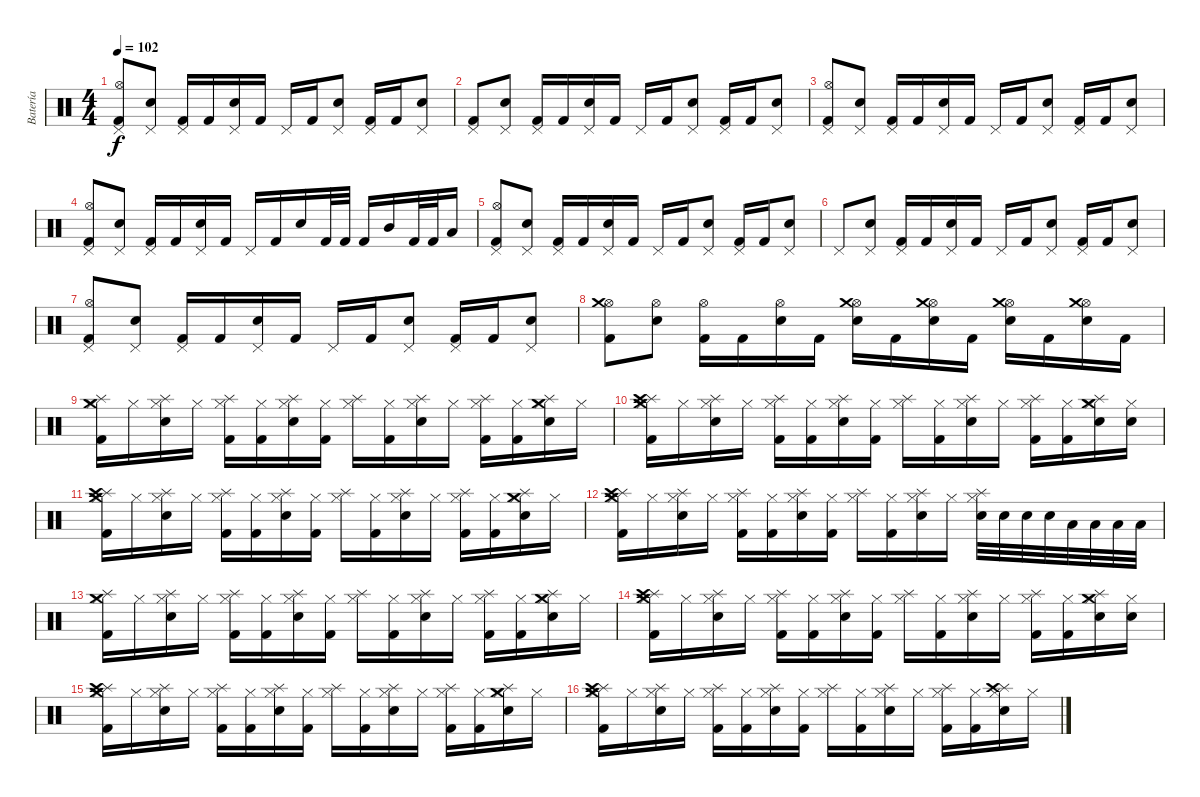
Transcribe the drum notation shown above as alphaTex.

\track ("Batería" "Batería") {instrument percussion}
\staff {score}
\articulation defaults
\ts (4 4)
\tempo 102
\clef neutral
\ks c
("Pedal Hi-Hat (hit)" "Hi-Hat (open)" "Kick (hit) 2").8{dy f} ("Pedal Hi-Hat (hit)" "Snare (hit) 2").8 ("Pedal Hi-Hat (hit)" "Kick (hit) 2").16 "Kick (hit) 2".16 ("Pedal Hi-Hat (hit)" "Snare (hit) 2").16 "Kick (hit) 2".16 "Pedal Hi-Hat (hit)".16 "Kick (hit) 2".16 ("Pedal Hi-Hat (hit)" "Snare (hit) 2").8 ("Pedal Hi-Hat (hit)" "Kick (hit) 2").16 "Kick (hit) 2".16 ("Pedal Hi-Hat (hit)" "Snare (hit) 2").8 |
("Pedal Hi-Hat (hit)" "Kick (hit) 2").8 ("Pedal Hi-Hat (hit)" "Snare (hit) 2").8 ("Pedal Hi-Hat (hit)" "Kick (hit) 2").16 "Kick (hit) 2".16 ("Pedal Hi-Hat (hit)" "Snare (hit) 2").16 "Kick (hit) 2".16 "Pedal Hi-Hat (hit)".16 "Kick (hit) 2".16 ("Pedal Hi-Hat (hit)" "Snare (hit) 2").8 ("Pedal Hi-Hat (hit)" "Kick (hit) 2").16 "Kick (hit) 2".16 ("Pedal Hi-Hat (hit)" "Snare (hit) 2").8 |
("Pedal Hi-Hat (hit)" "Hi-Hat (open)" "Kick (hit) 2").8 ("Pedal Hi-Hat (hit)" "Snare (hit) 2").8 ("Pedal Hi-Hat (hit)" "Kick (hit) 2").16 "Kick (hit) 2".16 ("Pedal Hi-Hat (hit)" "Snare (hit) 2").16 "Kick (hit) 2".16 "Pedal Hi-Hat (hit)".16 "Kick (hit) 2".16 ("Pedal Hi-Hat (hit)" "Snare (hit) 2").8 ("Pedal Hi-Hat (hit)" "Kick (hit) 2").16 "Kick (hit) 2".16 ("Pedal Hi-Hat (hit)" "Snare (hit) 2").8 |
("Pedal Hi-Hat (hit)" "Kick (hit) 2" "Hi-Hat (open)").8 ("Pedal Hi-Hat (hit)" "Snare (hit) 2").8 ("Pedal Hi-Hat (hit)" "Kick (hit) 2").16 "Kick (hit) 2".16 ("Pedal Hi-Hat (hit)" "Snare (hit) 2").16 "Kick (hit) 2".16 "Pedal Hi-Hat (hit)".16 "Kick (hit) 2".16 "Snare (hit) 2".16 "Kick (hit) 2".32 "Kick (hit) 2".32 "Kick (hit) 2".16 "Mid Tom (hit)".16 "Kick (hit) 2".32 "Kick (hit) 2".32 "Low Tom (hit)".16 |
("Pedal Hi-Hat (hit)" "Hi-Hat (open)" "Kick (hit) 2").8 ("Pedal Hi-Hat (hit)" "Snare (hit) 2").8 ("Pedal Hi-Hat (hit)" "Kick (hit) 2").16 "Kick (hit) 2".16 ("Pedal Hi-Hat (hit)" "Snare (hit) 2").16 "Kick (hit) 2".16 "Pedal Hi-Hat (hit)".16 "Kick (hit) 2".16 ("Pedal Hi-Hat (hit)" "Snare (hit) 2").8 ("Pedal Hi-Hat (hit)" "Kick (hit) 2").16 "Kick (hit) 2".16 ("Pedal Hi-Hat (hit)" "Snare (hit) 2").8 |
"Pedal Hi-Hat (hit)".8 ("Pedal Hi-Hat (hit)" "Snare (hit) 2").8 ("Pedal Hi-Hat (hit)" "Kick (hit) 2").16 "Kick (hit) 2".16 ("Pedal Hi-Hat (hit)" "Snare (hit) 2").16 "Kick (hit) 2".16 "Pedal Hi-Hat (hit)".16 "Kick (hit) 2".16 ("Pedal Hi-Hat (hit)" "Snare (hit) 2").8 ("Pedal Hi-Hat (hit)" "Kick (hit) 2").16 "Kick (hit) 2".16 ("Pedal Hi-Hat (hit)" "Snare (hit) 2").8 |
("Pedal Hi-Hat (hit)" "Hi-Hat (open)" "Kick (hit) 2").8 ("Pedal Hi-Hat (hit)" "Snare (hit) 2").8 ("Pedal Hi-Hat (hit)" "Kick (hit) 2").16 "Kick (hit) 2".16 ("Pedal Hi-Hat (hit)" "Snare (hit) 2").16 "Kick (hit) 2".16 "Pedal Hi-Hat (hit)".16 "Kick (hit) 2".16 ("Pedal Hi-Hat (hit)" "Snare (hit) 2").8 ("Pedal Hi-Hat (hit)" "Kick (hit) 2").16 "Kick (hit) 2".16 ("Pedal Hi-Hat (hit)" "Snare (hit) 2").8 |
("Hi-Hat (open)" "Kick (hit) 2" "Crash medium (hit)").8 ("Hi-Hat (open)" "Snare (hit) 2").8 ("Hi-Hat (open)" "Kick (hit) 2").16 "Kick (hit) 2".16 ("Hi-Hat (open)" "Snare (hit) 2").16 "Kick (hit) 2".16 ("Hi-Hat (open)" "Crash medium (hit)" "Snare (hit) 2").16 "Kick (hit) 2".16 ("Hi-Hat (open)" "Crash medium (hit)" "Snare (hit) 2").16 "Kick (hit) 2".16 ("Hi-Hat (open)" "Crash medium (hit)" "Snare (hit) 2").16 "Kick (hit) 2".16 ("Hi-Hat (open)" "Crash medium (hit)" "Snare (hit) 2").16 "Kick (hit) 2".16 |
("Hi-Hat (closed)" "Splash (hit)" "Kick (hit) 2" "Crash medium (hit)").16 "Hi-Hat (closed)".16 ("Hi-Hat (closed)" "Splash (hit)" "Snare (hit) 2").16 "Hi-Hat (closed)".16 ("Hi-Hat (closed)" "Splash (hit)" "Kick (hit) 2").16 ("Hi-Hat (closed)" "Kick (hit) 2").16 ("Hi-Hat (closed)" "Splash (hit)" "Snare (hit) 2").16 ("Hi-Hat (closed)" "Kick (hit) 2").16 ("Hi-Hat (closed)" "Splash (hit)").16 ("Hi-Hat (closed)" "Kick (hit) 2").16 ("Hi-Hat (closed)" "Splash (hit)" "Snare (hit) 2").16 "Hi-Hat (closed)".16 ("Hi-Hat (closed)" "Splash (hit)" "Kick (hit) 2").16 ("Hi-Hat (closed)" "Kick (hit) 2").16 ("Hi-Hat (closed)" "Splash (hit)" "Snare (hit) 2" "Crash medium (hit)").16 "Hi-Hat (closed)".16 |
("Hi-Hat (closed)" "Splash (hit)" "Kick (hit) 2" "Crash high (hit)" "Crash medium (hit)").16 "Hi-Hat (closed)".16 ("Hi-Hat (closed)" "Splash (hit)" "Snare (hit) 2").16 "Hi-Hat (closed)".16 ("Hi-Hat (closed)" "Splash (hit)" "Kick (hit) 2").16 ("Hi-Hat (closed)" "Kick (hit) 2").16 ("Hi-Hat (closed)" "Splash (hit)" "Snare (hit) 2").16 ("Hi-Hat (closed)" "Kick (hit) 2").16 ("Hi-Hat (closed)" "Splash (hit)").16 ("Hi-Hat (closed)" "Kick (hit) 2").16 ("Hi-Hat (closed)" "Splash (hit)" "Snare (hit) 2").16 "Hi-Hat (closed)".16 ("Hi-Hat (closed)" "Splash (hit)" "Kick (hit) 2").16 ("Hi-Hat (closed)" "Kick (hit) 2").16 ("Hi-Hat (closed)" "Splash (hit)" "Snare (hit) 2" "Crash medium (hit)").16 ("Hi-Hat (closed)" "Snare (hit) 2").16 |
("Hi-Hat (closed)" "Splash (hit)" "Kick (hit) 2" "Crash high (hit)" "Crash medium (hit)").16 "Hi-Hat (closed)".16 ("Hi-Hat (closed)" "Splash (hit)" "Snare (hit) 2").16 "Hi-Hat (closed)".16 ("Hi-Hat (closed)" "Splash (hit)" "Kick (hit) 2").16 ("Hi-Hat (closed)" "Kick (hit) 2").16 ("Hi-Hat (closed)" "Splash (hit)" "Snare (hit) 2").16 ("Hi-Hat (closed)" "Kick (hit) 2").16 ("Hi-Hat (closed)" "Splash (hit)").16 ("Hi-Hat (closed)" "Kick (hit) 2").16 ("Hi-Hat (closed)" "Splash (hit)" "Snare (hit) 2").16 "Hi-Hat (closed)".16 ("Hi-Hat (closed)" "Splash (hit)" "Kick (hit) 2").16 ("Hi-Hat (closed)" "Kick (hit) 2").16 ("Hi-Hat (closed)" "Splash (hit)" "Snare (hit) 2" "Crash medium (hit)").16 "Hi-Hat (closed)".16 |
("Hi-Hat (closed)" "Splash (hit)" "Kick (hit) 2" "Crash high (hit)" "Crash medium (hit)").16 "Hi-Hat (closed)".16 ("Hi-Hat (closed)" "Splash (hit)" "Snare (hit) 2").16 "Hi-Hat (closed)".16 ("Hi-Hat (closed)" "Splash (hit)" "Kick (hit) 2").16 ("Hi-Hat (closed)" "Kick (hit) 2").16 ("Hi-Hat (closed)" "Splash (hit)" "Snare (hit) 2").16 ("Hi-Hat (closed)" "Kick (hit) 2").16 ("Hi-Hat (closed)" "Splash (hit)").16 ("Hi-Hat (closed)" "Kick (hit) 2").16 ("Hi-Hat (closed)" "Splash (hit)" "Snare (hit) 2").16 "Hi-Hat (closed)".16 ("Hi-Hat (closed)" "Splash (hit)" "Snare (hit) 2").32 "Snare (hit) 2".32 "Electric Snare (hit)".32 "Electric Snare (hit)".32 "Low Tom (hit)".32 "Low Tom (hit)".32 "Low Tom (hit)".32 "Low Tom (hit)".32 |
("Hi-Hat (closed)" "Splash (hit)" "Kick (hit) 2" "Crash medium (hit)").16 "Hi-Hat (closed)".16 ("Hi-Hat (closed)" "Splash (hit)" "Snare (hit) 2").16 "Hi-Hat (closed)".16 ("Hi-Hat (closed)" "Splash (hit)" "Kick (hit) 2").16 ("Hi-Hat (closed)" "Kick (hit) 2").16 ("Hi-Hat (closed)" "Splash (hit)" "Snare (hit) 2").16 ("Hi-Hat (closed)" "Kick (hit) 2").16 ("Hi-Hat (closed)" "Splash (hit)").16 ("Hi-Hat (closed)" "Kick (hit) 2").16 ("Hi-Hat (closed)" "Splash (hit)" "Snare (hit) 2").16 "Hi-Hat (closed)".16 ("Hi-Hat (closed)" "Splash (hit)" "Kick (hit) 2").16 ("Hi-Hat (closed)" "Kick (hit) 2").16 ("Hi-Hat (closed)" "Splash (hit)" "Snare (hit) 2" "Crash medium (hit)").16 "Hi-Hat (closed)".16 |
("Hi-Hat (closed)" "Splash (hit)" "Kick (hit) 2" "Crash high (hit)" "Crash medium (hit)").16 "Hi-Hat (closed)".16 ("Hi-Hat (closed)" "Splash (hit)" "Snare (hit) 2").16 "Hi-Hat (closed)".16 ("Hi-Hat (closed)" "Splash (hit)" "Kick (hit) 2").16 ("Hi-Hat (closed)" "Kick (hit) 2").16 ("Hi-Hat (closed)" "Splash (hit)" "Snare (hit) 2").16 ("Hi-Hat (closed)" "Kick (hit) 2").16 ("Hi-Hat (closed)" "Splash (hit)").16 ("Hi-Hat (closed)" "Kick (hit) 2").16 ("Hi-Hat (closed)" "Splash (hit)" "Snare (hit) 2").16 "Hi-Hat (closed)".16 ("Hi-Hat (closed)" "Splash (hit)" "Kick (hit) 2").16 ("Hi-Hat (closed)" "Kick (hit) 2").16 ("Hi-Hat (closed)" "Splash (hit)" "Snare (hit) 2" "Crash medium (hit)").16 ("Hi-Hat (closed)" "Snare (hit) 2").16 |
("Hi-Hat (closed)" "Splash (hit)" "Kick (hit) 2" "Crash high (hit)" "Crash medium (hit)").16 "Hi-Hat (closed)".16 ("Hi-Hat (closed)" "Splash (hit)" "Snare (hit) 2").16 "Hi-Hat (closed)".16 ("Hi-Hat (closed)" "Splash (hit)" "Kick (hit) 2").16 ("Hi-Hat (closed)" "Kick (hit) 2").16 ("Hi-Hat (closed)" "Splash (hit)" "Snare (hit) 2").16 ("Hi-Hat (closed)" "Kick (hit) 2").16 ("Hi-Hat (closed)" "Splash (hit)").16 ("Hi-Hat (closed)" "Kick (hit) 2").16 ("Hi-Hat (closed)" "Splash (hit)" "Snare (hit) 2").16 "Hi-Hat (closed)".16 ("Hi-Hat (closed)" "Splash (hit)" "Kick (hit) 2").16 ("Hi-Hat (closed)" "Kick (hit) 2").16 ("Hi-Hat (closed)" "Splash (hit)" "Snare (hit) 2" "Crash medium (hit)").16 "Hi-Hat (closed)".16 |
("Hi-Hat (closed)" "Splash (hit)" "Kick (hit) 2" "Crash high (hit)" "Crash medium (hit)").16 "Hi-Hat (closed)".16 ("Hi-Hat (closed)" "Splash (hit)" "Snare (hit) 2").16 "Hi-Hat (closed)".16 ("Hi-Hat (closed)" "Splash (hit)" "Kick (hit) 2").16 ("Hi-Hat (closed)" "Kick (hit) 2").16 ("Hi-Hat (closed)" "Splash (hit)" "Snare (hit) 2").16 ("Hi-Hat (closed)" "Kick (hit) 2").16 ("Hi-Hat (closed)" "Splash (hit)").16 ("Hi-Hat (closed)" "Kick (hit) 2").16 ("Hi-Hat (closed)" "Splash (hit)" "Snare (hit) 2").16 "Hi-Hat (closed)".16 ("Hi-Hat (closed)" "Splash (hit)" "Kick (hit) 2").16 ("Hi-Hat (closed)" "Kick (hit) 2").16 ("Hi-Hat (closed)" "Splash (hit)" "Snare (hit) 2" "Crash high (hit)").16 "Hi-Hat (closed)".16
